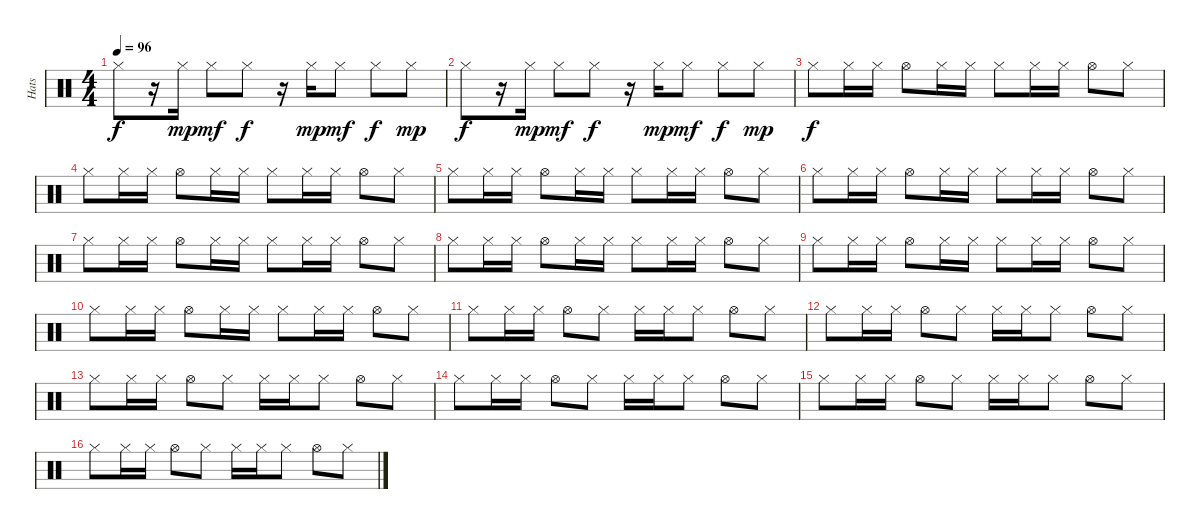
\track ("Hats" "Hats") {instrument percussion}
\staff {score}
\articulation defaults
\ts (4 4)
\tempo 96
\clef neutral
\ks c "Hi-Hat (closed)".8{dy f}
r.16 "Hi-Hat (closed)".16{dy mp} "Hi-Hat (closed)".8{dy mf} "Hi-Hat (closed)".8{dy f} r.16 "Hi-Hat (closed)".16{dy mp} "Hi-Hat (closed)".8{dy mf} "Hi-Hat (closed)".8{dy f} "Hi-Hat (closed)".8{dy mp} |
"Hi-Hat (closed)".8{dy f} r.16 "Hi-Hat (closed)".16{dy mp} "Hi-Hat (closed)".8{dy mf} "Hi-Hat (closed)".8{dy f} r.16 "Hi-Hat (closed)".16{dy mp} "Hi-Hat (closed)".8{dy mf} "Hi-Hat (closed)".8{dy f} "Hi-Hat (closed)".8{dy mp} |
"Hi-Hat (closed)".8{dy f} "Hi-Hat (closed)".16 "Hi-Hat (closed)".16 "Hi-Hat (open)".8 "Hi-Hat (closed)".16 "Hi-Hat (closed)".16 "Hi-Hat (closed)".8 "Hi-Hat (closed)".16 "Hi-Hat (closed)".16 "Hi-Hat (open)".8 "Hi-Hat (closed)".8 |
"Hi-Hat (closed)".8 "Hi-Hat (closed)".16 "Hi-Hat (closed)".16 "Hi-Hat (open)".8 "Hi-Hat (closed)".16 "Hi-Hat (closed)".16 "Hi-Hat (closed)".8 "Hi-Hat (closed)".16 "Hi-Hat (closed)".16 "Hi-Hat (open)".8 "Hi-Hat (closed)".8 |
"Hi-Hat (closed)".8 "Hi-Hat (closed)".16 "Hi-Hat (closed)".16 "Hi-Hat (open)".8 "Hi-Hat (closed)".16 "Hi-Hat (closed)".16 "Hi-Hat (closed)".8 "Hi-Hat (closed)".16 "Hi-Hat (closed)".16 "Hi-Hat (open)".8 "Hi-Hat (closed)".8 |
"Hi-Hat (closed)".8 "Hi-Hat (closed)".16 "Hi-Hat (closed)".16 "Hi-Hat (open)".8 "Hi-Hat (closed)".16 "Hi-Hat (closed)".16 "Hi-Hat (closed)".8 "Hi-Hat (closed)".16 "Hi-Hat (closed)".16 "Hi-Hat (open)".8 "Hi-Hat (closed)".8 |
"Hi-Hat (closed)".8 "Hi-Hat (closed)".16 "Hi-Hat (closed)".16 "Hi-Hat (open)".8 "Hi-Hat (closed)".16 "Hi-Hat (closed)".16 "Hi-Hat (closed)".8 "Hi-Hat (closed)".16 "Hi-Hat (closed)".16 "Hi-Hat (open)".8 "Hi-Hat (closed)".8 |
"Hi-Hat (closed)".8 "Hi-Hat (closed)".16 "Hi-Hat (closed)".16 "Hi-Hat (open)".8 "Hi-Hat (closed)".16 "Hi-Hat (closed)".16 "Hi-Hat (closed)".8 "Hi-Hat (closed)".16 "Hi-Hat (closed)".16 "Hi-Hat (open)".8 "Hi-Hat (closed)".8 |
"Hi-Hat (closed)".8 "Hi-Hat (closed)".16 "Hi-Hat (closed)".16 "Hi-Hat (open)".8 "Hi-Hat (closed)".16 "Hi-Hat (closed)".16 "Hi-Hat (closed)".8 "Hi-Hat (closed)".16 "Hi-Hat (closed)".16 "Hi-Hat (open)".8 "Hi-Hat (closed)".8 |
"Hi-Hat (closed)".8 "Hi-Hat (closed)".16 "Hi-Hat (closed)".16 "Hi-Hat (open)".8 "Hi-Hat (closed)".16 "Hi-Hat (closed)".16 "Hi-Hat (closed)".8 "Hi-Hat (closed)".16 "Hi-Hat (closed)".16 "Hi-Hat (open)".8 "Hi-Hat (closed)".8 |
"Hi-Hat (closed)".8 "Hi-Hat (closed)".16 "Hi-Hat (closed)".16 "Hi-Hat (open)".8 "Hi-Hat (closed)".8 "Hi-Hat (closed)".16 "Hi-Hat (closed)".16 "Hi-Hat (closed)".8 "Hi-Hat (open)".8 "Hi-Hat (closed)".8 |
"Hi-Hat (closed)".8 "Hi-Hat (closed)".16 "Hi-Hat (closed)".16 "Hi-Hat (open)".8 "Hi-Hat (closed)".8 "Hi-Hat (closed)".16 "Hi-Hat (closed)".16 "Hi-Hat (closed)".8 "Hi-Hat (open)".8 "Hi-Hat (closed)".8 |
"Hi-Hat (closed)".8 "Hi-Hat (closed)".16 "Hi-Hat (closed)".16 "Hi-Hat (open)".8 "Hi-Hat (closed)".8 "Hi-Hat (closed)".16 "Hi-Hat (closed)".16 "Hi-Hat (closed)".8 "Hi-Hat (open)".8 "Hi-Hat (closed)".8 |
"Hi-Hat (closed)".8 "Hi-Hat (closed)".16 "Hi-Hat (closed)".16 "Hi-Hat (open)".8 "Hi-Hat (closed)".8 "Hi-Hat (closed)".16 "Hi-Hat (closed)".16 "Hi-Hat (closed)".8 "Hi-Hat (open)".8 "Hi-Hat (closed)".8 |
"Hi-Hat (closed)".8 "Hi-Hat (closed)".16 "Hi-Hat (closed)".16 "Hi-Hat (open)".8 "Hi-Hat (closed)".8 "Hi-Hat (closed)".16 "Hi-Hat (closed)".16 "Hi-Hat (closed)".8 "Hi-Hat (open)".8 "Hi-Hat (closed)".8 |
"Hi-Hat (closed)".8 "Hi-Hat (closed)".16 "Hi-Hat (closed)".16 "Hi-Hat (open)".8 "Hi-Hat (closed)".8 "Hi-Hat (closed)".16 "Hi-Hat (closed)".16 "Hi-Hat (closed)".8 "Hi-Hat (open)".8 "Hi-Hat (closed)".8
